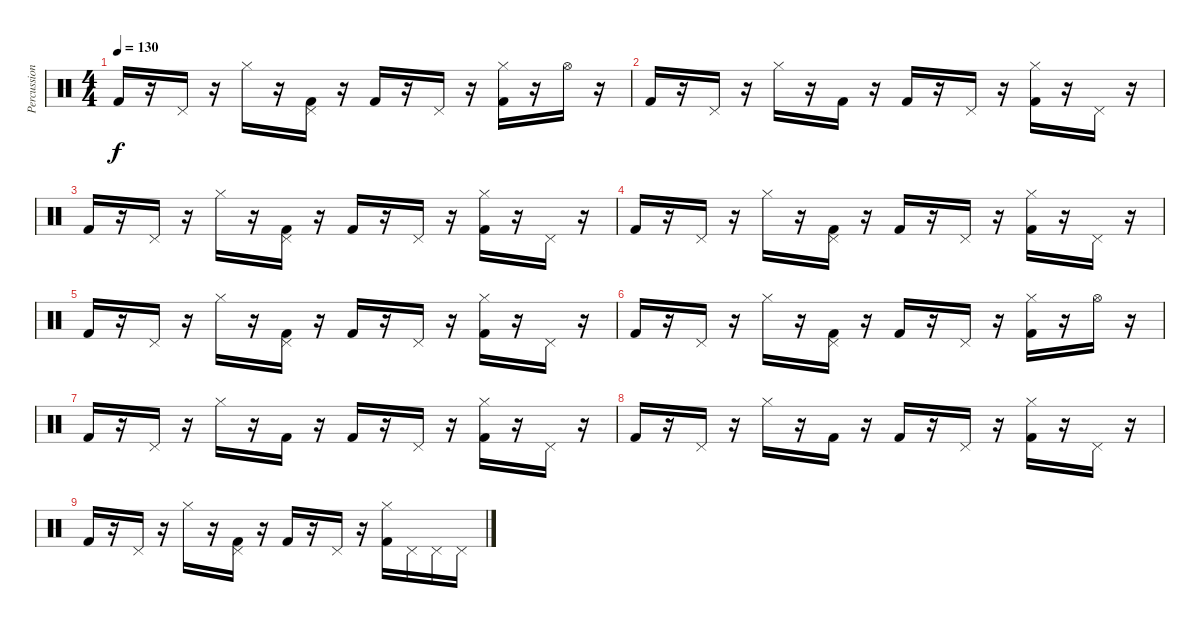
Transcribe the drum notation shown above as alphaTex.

\track ("Percussion" "Percussion") {instrument percussion}
\staff {score}
\articulation defaults
\ts (4 4)
\tempo 130
\clef neutral
\ks c "Kick (hit) 2".16{dy f}
r.16 "Pedal Hi-Hat (hit)".16 r.16 "Hi-Hat (closed)".16 r.16 ("Kick (hit) 2" "Pedal Hi-Hat (hit)").16 r.16 "Kick (hit) 2".16 r.16 "Pedal Hi-Hat (hit)".16 r.16 ("Kick (hit) 2" "Hi-Hat (closed)").16 r.16 "Hi-Hat (open)".16 r.16 |
"Kick (hit) 2".16 r.16 "Pedal Hi-Hat (hit)".16 r.16 "Hi-Hat (closed)".16 r.16 "Kick (hit) 2".16 r.16 "Kick (hit) 2".16 r.16 "Pedal Hi-Hat (hit)".16 r.16 ("Kick (hit) 2" "Hi-Hat (closed)").16 r.16 "Pedal Hi-Hat (hit)".16 r.16 |
"Kick (hit) 2".16 r.16 "Pedal Hi-Hat (hit)".16 r.16 "Hi-Hat (closed)".16 r.16 ("Kick (hit) 2" "Pedal Hi-Hat (hit)").16 r.16 "Kick (hit) 2".16 r.16 "Pedal Hi-Hat (hit)".16 r.16 ("Kick (hit) 2" "Hi-Hat (closed)").16 r.16 "Pedal Hi-Hat (hit)".16 r.16 |
"Kick (hit) 2".16 r.16 "Pedal Hi-Hat (hit)".16 r.16 "Hi-Hat (closed)".16 r.16 ("Kick (hit) 2" "Pedal Hi-Hat (hit)").16 r.16 "Kick (hit) 2".16 r.16 "Pedal Hi-Hat (hit)".16 r.16 ("Kick (hit) 2" "Hi-Hat (closed)").16 r.16 "Pedal Hi-Hat (hit)".16 r.16 |
"Kick (hit) 2".16 r.16 "Pedal Hi-Hat (hit)".16 r.16 "Hi-Hat (closed)".16 r.16 ("Kick (hit) 2" "Pedal Hi-Hat (hit)").16 r.16 "Kick (hit) 2".16 r.16 "Pedal Hi-Hat (hit)".16 r.16 ("Kick (hit) 2" "Hi-Hat (closed)").16 r.16 "Pedal Hi-Hat (hit)".16 r.16 |
"Kick (hit) 2".16 r.16 "Pedal Hi-Hat (hit)".16 r.16 "Hi-Hat (closed)".16 r.16 ("Kick (hit) 2" "Pedal Hi-Hat (hit)").16 r.16 "Kick (hit) 2".16 r.16 "Pedal Hi-Hat (hit)".16 r.16 ("Kick (hit) 2" "Hi-Hat (closed)").16 r.16 "Hi-Hat (open)".16 r.16 |
"Kick (hit) 2".16 r.16 "Pedal Hi-Hat (hit)".16 r.16 "Hi-Hat (closed)".16 r.16 "Kick (hit) 2".16 r.16 "Kick (hit) 2".16 r.16 "Pedal Hi-Hat (hit)".16 r.16 ("Kick (hit) 2" "Hi-Hat (closed)").16 r.16 "Pedal Hi-Hat (hit)".16 r.16 |
"Kick (hit) 2".16 r.16 "Pedal Hi-Hat (hit)".16 r.16 "Hi-Hat (closed)".16 r.16 "Kick (hit) 2".16 r.16 "Kick (hit) 2".16 r.16 "Pedal Hi-Hat (hit)".16 r.16 ("Kick (hit) 2" "Hi-Hat (closed)").16 r.16 "Pedal Hi-Hat (hit)".16 r.16 |
"Kick (hit) 2".16 r.16 "Pedal Hi-Hat (hit)".16 r.16 "Hi-Hat (closed)".16 r.16 ("Kick (hit) 2" "Pedal Hi-Hat (hit)").16 r.16 "Kick (hit) 2".16 r.16 "Pedal Hi-Hat (hit)".16 r.16 ("Kick (hit) 2" "Hi-Hat (closed)").16 "Pedal Hi-Hat (hit)".16 "Pedal Hi-Hat (hit)".16 "Pedal Hi-Hat (hit)".16
